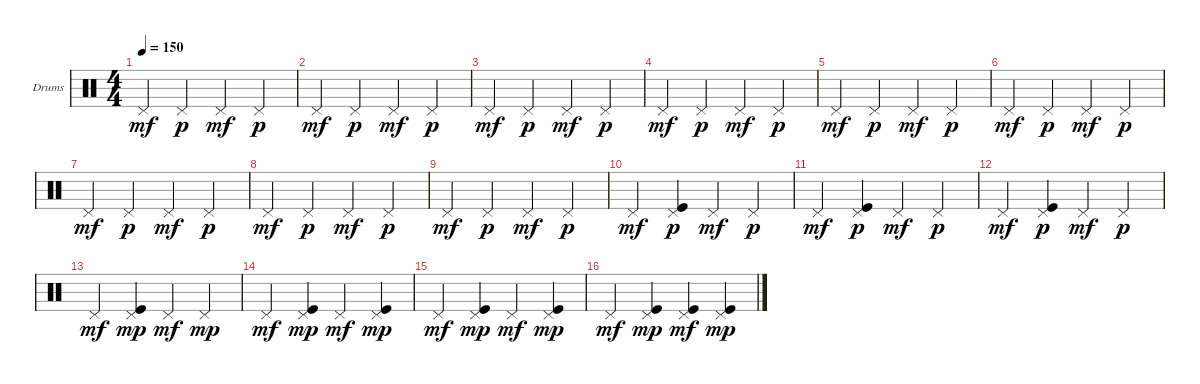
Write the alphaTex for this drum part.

\defaultSystemsLayout 4
\bracketExtendMode groupsimilarinstruments
\firstSystemTrackNameOrientation horizontal
\otherSystemsTrackNameOrientation horizontal
\track ("Е. Кулаков" "Drums") {instrument percussion}
\staff {score}
\articulation defaults
\ts (4 4)
\tempo 150
\clef neutral
\ks c "Pedal Hi-Hat (hit)".4{dy mf} "Pedal Hi-Hat (hit)".4{dy p} "Pedal Hi-Hat (hit)".4{dy mf} "Pedal Hi-Hat (hit)".4{dy p}
|
"Pedal Hi-Hat (hit)".4{dy mf} "Pedal Hi-Hat (hit)".4{dy p} "Pedal Hi-Hat (hit)".4{dy mf} "Pedal Hi-Hat (hit)".4{dy p} |
"Pedal Hi-Hat (hit)".4{dy mf} "Pedal Hi-Hat (hit)".4{dy p} "Pedal Hi-Hat (hit)".4{dy mf} "Pedal Hi-Hat (hit)".4{dy p} |
"Pedal Hi-Hat (hit)".4{dy mf} "Pedal Hi-Hat (hit)".4{dy p} "Pedal Hi-Hat (hit)".4{dy mf} "Pedal Hi-Hat (hit)".4{dy p} |
"Pedal Hi-Hat (hit)".4{dy mf} "Pedal Hi-Hat (hit)".4{dy p} "Pedal Hi-Hat (hit)".4{dy mf} "Pedal Hi-Hat (hit)".4{dy p} |
"Pedal Hi-Hat (hit)".4{dy mf} "Pedal Hi-Hat (hit)".4{dy p} "Pedal Hi-Hat (hit)".4{dy mf} "Pedal Hi-Hat (hit)".4{dy p} |
"Pedal Hi-Hat (hit)".4{dy mf} "Pedal Hi-Hat (hit)".4{dy p} "Pedal Hi-Hat (hit)".4{dy mf} "Pedal Hi-Hat (hit)".4{dy p} |
"Pedal Hi-Hat (hit)".4{dy mf} "Pedal Hi-Hat (hit)".4{dy p} "Pedal Hi-Hat (hit)".4{dy mf} "Pedal Hi-Hat (hit)".4{dy p} |
"Pedal Hi-Hat (hit)".4{dy mf} "Pedal Hi-Hat (hit)".4{dy p} "Pedal Hi-Hat (hit)".4{dy mf} "Pedal Hi-Hat (hit)".4{dy p} |
"Pedal Hi-Hat (hit)".4{dy mf} ("Pedal Hi-Hat (hit)" "Kick (hit)").4{dy p} "Pedal Hi-Hat (hit)".4{dy mf} "Pedal Hi-Hat (hit)".4{dy p} |
"Pedal Hi-Hat (hit)".4{dy mf} ("Pedal Hi-Hat (hit)" "Kick (hit)").4{dy p} "Pedal Hi-Hat (hit)".4{dy mf} "Pedal Hi-Hat (hit)".4{dy p} |
"Pedal Hi-Hat (hit)".4{dy mf} ("Pedal Hi-Hat (hit)" "Kick (hit)").4{dy p} "Pedal Hi-Hat (hit)".4{dy mf} "Pedal Hi-Hat (hit)".4{dy p} |
"Pedal Hi-Hat (hit)".4{dy mf} ("Pedal Hi-Hat (hit)" "Kick (hit)").4{dy mp} "Pedal Hi-Hat (hit)".4{dy mf} "Pedal Hi-Hat (hit)".4{dy mp} |
"Pedal Hi-Hat (hit)".4{dy mf} ("Pedal Hi-Hat (hit)" "Kick (hit)").4{dy mp} "Pedal Hi-Hat (hit)".4{dy mf} ("Pedal Hi-Hat (hit)" "Kick (hit)").4{dy mp} |
"Pedal Hi-Hat (hit)".4{dy mf} ("Pedal Hi-Hat (hit)" "Kick (hit)").4{dy mp} "Pedal Hi-Hat (hit)".4{dy mf} ("Pedal Hi-Hat (hit)" "Kick (hit)").4{dy mp} |
"Pedal Hi-Hat (hit)".4{dy mf} ("Pedal Hi-Hat (hit)" "Kick (hit)").4{dy mp} ("Pedal Hi-Hat (hit)" "Kick (hit)").4{dy mf} ("Pedal Hi-Hat (hit)" "Kick (hit)").4{dy mp}
